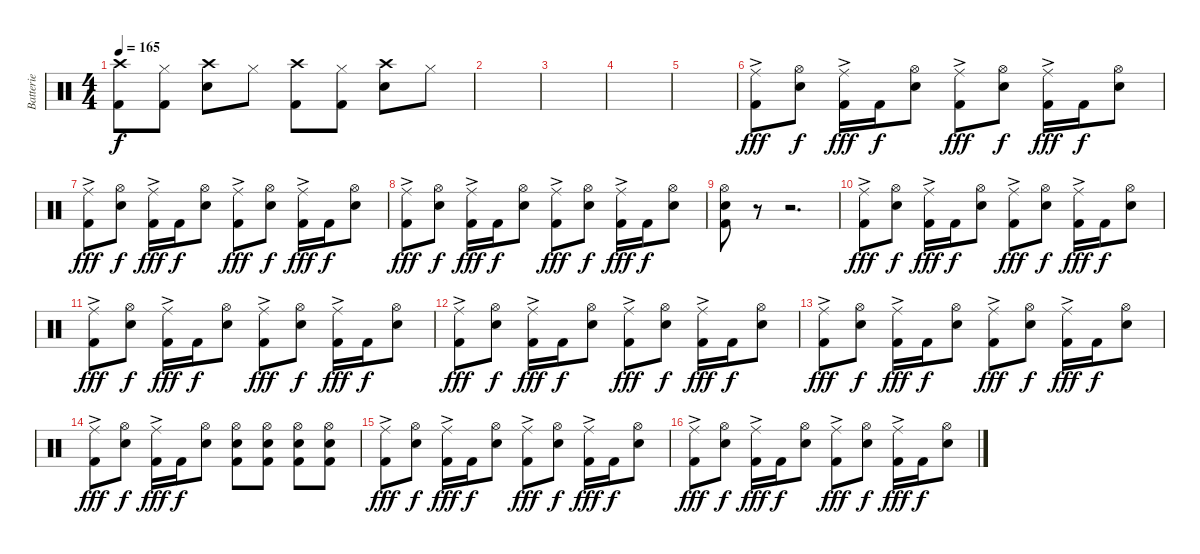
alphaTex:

\track ("Batterie" "Batterie") {instrument percussion}
\staff {score}
\articulation defaults
\ts (4 4)
\tempo 165
\clef neutral
\ks c
("Crash high (hit)" "Kick (hit) 2").8{dy f} ("Hi-Hat (closed)" "Kick (hit) 2").8 ("Crash high (hit)" "Snare (hit) 2").8 "Hi-Hat (closed)".8 ("Crash high (hit)" "Kick (hit) 2").8 ("Hi-Hat (closed)" "Kick (hit) 2").8 ("Crash high (hit)" "Snare (hit) 2").8 "Hi-Hat (closed)".8 |
|
|
|
|
("Ride (middle)"{ac} "Kick (hit) 2").8{dy fff} ("Hi-Hat (open)" "Snare (hit) 2").8{dy f} ("Ride (middle)"{ac} "Kick (hit) 2").16{dy fff} "Kick (hit) 2".16{dy f} ("Hi-Hat (open)" "Snare (hit) 2").8 ("Ride (middle)"{ac} "Kick (hit) 2").8{dy fff} ("Hi-Hat (open)" "Snare (hit) 2").8{dy f} ("Ride (middle)"{ac} "Kick (hit) 2").16{dy fff} "Kick (hit) 2".16{dy f} ("Hi-Hat (open)" "Snare (hit) 2").8 |
("Ride (middle)"{ac} "Kick (hit) 2").8{dy fff} ("Hi-Hat (open)" "Snare (hit) 2").8{dy f} ("Ride (middle)"{ac} "Kick (hit) 2").16{dy fff} "Kick (hit) 2".16{dy f} ("Hi-Hat (open)" "Snare (hit) 2").8 ("Ride (middle)"{ac} "Kick (hit) 2").8{dy fff} ("Hi-Hat (open)" "Snare (hit) 2").8{dy f} ("Ride (middle)"{ac} "Kick (hit) 2").16{dy fff} "Kick (hit) 2".16{dy f} ("Hi-Hat (open)" "Snare (hit) 2").8 |
("Ride (middle)"{ac} "Kick (hit) 2").8{dy fff} ("Hi-Hat (open)" "Snare (hit) 2").8{dy f} ("Ride (middle)"{ac} "Kick (hit) 2").16{dy fff} "Kick (hit) 2".16{dy f} ("Hi-Hat (open)" "Snare (hit) 2").8 ("Ride (middle)"{ac} "Kick (hit) 2").8{dy fff} ("Hi-Hat (open)" "Snare (hit) 2").8{dy f} ("Ride (middle)"{ac} "Kick (hit) 2").16{dy fff} "Kick (hit) 2".16{dy f} ("Hi-Hat (open)" "Snare (hit) 2").8 |
("Hi-Hat (open)" "Snare (hit) 2" "Kick (hit) 2").8 r.8 r.2{d} |
("Ride (middle)"{ac} "Kick (hit) 2").8{dy fff} ("Hi-Hat (open)" "Snare (hit) 2").8{dy f} ("Ride (middle)"{ac} "Kick (hit) 2").16{dy fff} "Kick (hit) 2".16{dy f} ("Hi-Hat (open)" "Snare (hit) 2").8 ("Ride (middle)"{ac} "Kick (hit) 2").8{dy fff} ("Hi-Hat (open)" "Snare (hit) 2").8{dy f} ("Ride (middle)"{ac} "Kick (hit) 2").16{dy fff} "Kick (hit) 2".16{dy f} ("Hi-Hat (open)" "Snare (hit) 2").8 |
("Ride (middle)"{ac} "Kick (hit) 2").8{dy fff} ("Hi-Hat (open)" "Snare (hit) 2").8{dy f} ("Ride (middle)"{ac} "Kick (hit) 2").16{dy fff} "Kick (hit) 2".16{dy f} ("Hi-Hat (open)" "Snare (hit) 2").8 ("Ride (middle)"{ac} "Kick (hit) 2").8{dy fff} ("Hi-Hat (open)" "Snare (hit) 2").8{dy f} ("Ride (middle)"{ac} "Kick (hit) 2").16{dy fff} "Kick (hit) 2".16{dy f} ("Hi-Hat (open)" "Snare (hit) 2").8 |
("Ride (middle)"{ac} "Kick (hit) 2").8{dy fff} ("Hi-Hat (open)" "Snare (hit) 2").8{dy f} ("Ride (middle)"{ac} "Kick (hit) 2").16{dy fff} "Kick (hit) 2".16{dy f} ("Hi-Hat (open)" "Snare (hit) 2").8 ("Ride (middle)"{ac} "Kick (hit) 2").8{dy fff} ("Hi-Hat (open)" "Snare (hit) 2").8{dy f} ("Ride (middle)"{ac} "Kick (hit) 2").16{dy fff} "Kick (hit) 2".16{dy f} ("Hi-Hat (open)" "Snare (hit) 2").8 |
("Ride (middle)"{ac} "Kick (hit) 2").8{dy fff} ("Hi-Hat (open)" "Snare (hit) 2").8{dy f} ("Ride (middle)"{ac} "Kick (hit) 2").16{dy fff} "Kick (hit) 2".16{dy f} ("Hi-Hat (open)" "Snare (hit) 2").8 ("Ride (middle)"{ac} "Kick (hit) 2").8{dy fff} ("Hi-Hat (open)" "Snare (hit) 2").8{dy f} ("Ride (middle)"{ac} "Kick (hit) 2").16{dy fff} "Kick (hit) 2".16{dy f} ("Hi-Hat (open)" "Snare (hit) 2").8 |
("Ride (middle)"{ac} "Kick (hit) 2").8{dy fff} ("Hi-Hat (open)" "Snare (hit) 2").8{dy f} ("Ride (middle)"{ac} "Kick (hit) 2").16{dy fff} "Kick (hit) 2".16{dy f} ("Hi-Hat (open)" "Snare (hit) 2").8 ("Hi-Hat (open)" "Snare (hit) 2" "Kick (hit) 2").8 ("Hi-Hat (open)" "Snare (hit) 2" "Kick (hit) 2").8 ("Hi-Hat (open)" "Snare (hit) 2" "Kick (hit) 2").8 ("Hi-Hat (open)" "Snare (hit) 2" "Kick (hit) 2").8 |
("Ride (middle)"{ac} "Kick (hit) 2").8{dy fff} ("Hi-Hat (open)" "Snare (hit) 2").8{dy f} ("Ride (middle)"{ac} "Kick (hit) 2").16{dy fff} "Kick (hit) 2".16{dy f} ("Hi-Hat (open)" "Snare (hit) 2").8 ("Ride (middle)"{ac} "Kick (hit) 2").8{dy fff} ("Hi-Hat (open)" "Snare (hit) 2").8{dy f} ("Ride (middle)"{ac} "Kick (hit) 2").16{dy fff} "Kick (hit) 2".16{dy f} ("Hi-Hat (open)" "Snare (hit) 2").8 |
("Ride (middle)"{ac} "Kick (hit) 2").8{dy fff} ("Hi-Hat (open)" "Snare (hit) 2").8{dy f} ("Ride (middle)"{ac} "Kick (hit) 2").16{dy fff} "Kick (hit) 2".16{dy f} ("Hi-Hat (open)" "Snare (hit) 2").8 ("Ride (middle)"{ac} "Kick (hit) 2").8{dy fff} ("Hi-Hat (open)" "Snare (hit) 2").8{dy f} ("Ride (middle)"{ac} "Kick (hit) 2").16{dy fff} "Kick (hit) 2".16{dy f} ("Hi-Hat (open)" "Snare (hit) 2").8
